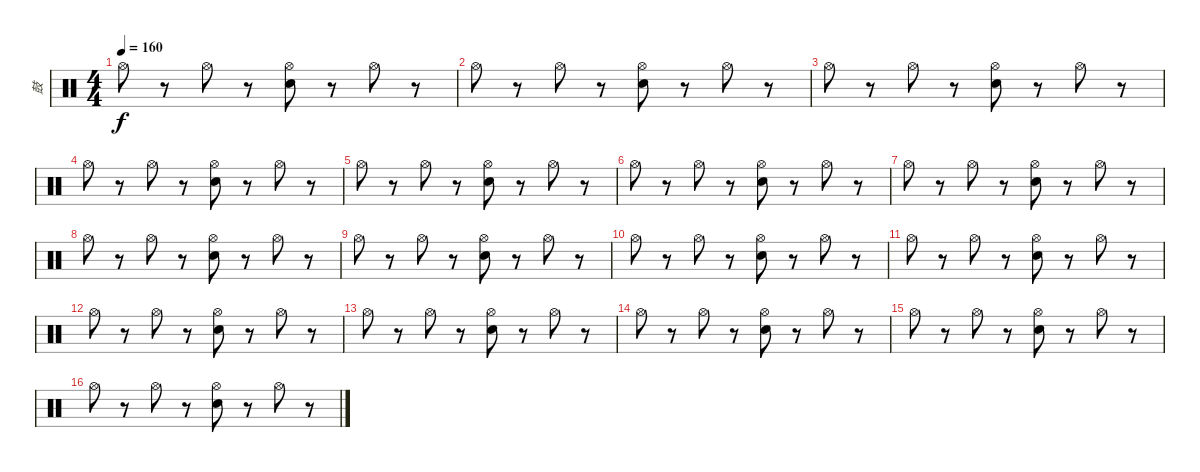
\track ("鼓" "鼓") {instrument percussion}
\staff {score}
\articulation defaults
\ts (4 4)
\tempo 160
\clef neutral
\ks c "Hi-Hat (open)".8{dy f}
r.8 "Hi-Hat (open)".8 r.8 ("Electric Snare (hit)" "Hi-Hat (open)").8 r.8 "Hi-Hat (open)".8 r.8 |
"Hi-Hat (open)".8 r.8 "Hi-Hat (open)".8 r.8 ("Electric Snare (hit)" "Hi-Hat (open)").8 r.8 "Hi-Hat (open)".8 r.8 |
"Hi-Hat (open)".8 r.8 "Hi-Hat (open)".8 r.8 ("Electric Snare (hit)" "Hi-Hat (open)").8 r.8 "Hi-Hat (open)".8 r.8 |
"Hi-Hat (open)".8 r.8 "Hi-Hat (open)".8 r.8 ("Electric Snare (hit)" "Hi-Hat (open)").8 r.8 "Hi-Hat (open)".8 r.8 |
"Hi-Hat (open)".8 r.8 "Hi-Hat (open)".8 r.8 ("Electric Snare (hit)" "Hi-Hat (open)").8 r.8 "Hi-Hat (open)".8 r.8 |
"Hi-Hat (open)".8 r.8 "Hi-Hat (open)".8 r.8 ("Electric Snare (hit)" "Hi-Hat (open)").8 r.8 "Hi-Hat (open)".8 r.8 |
"Hi-Hat (open)".8 r.8 "Hi-Hat (open)".8 r.8 ("Electric Snare (hit)" "Hi-Hat (open)").8 r.8 "Hi-Hat (open)".8 r.8 |
"Hi-Hat (open)".8 r.8 "Hi-Hat (open)".8 r.8 ("Electric Snare (hit)" "Hi-Hat (open)").8 r.8 "Hi-Hat (open)".8 r.8 |
"Hi-Hat (open)".8 r.8 "Hi-Hat (open)".8 r.8 ("Electric Snare (hit)" "Hi-Hat (open)").8 r.8 "Hi-Hat (open)".8 r.8 |
"Hi-Hat (open)".8 r.8 "Hi-Hat (open)".8 r.8 ("Electric Snare (hit)" "Hi-Hat (open)").8 r.8 "Hi-Hat (open)".8 r.8 |
"Hi-Hat (open)".8 r.8 "Hi-Hat (open)".8 r.8 ("Electric Snare (hit)" "Hi-Hat (open)").8 r.8 "Hi-Hat (open)".8 r.8 |
"Hi-Hat (open)".8 r.8 "Hi-Hat (open)".8 r.8 ("Electric Snare (hit)" "Hi-Hat (open)").8 r.8 "Hi-Hat (open)".8 r.8 |
"Hi-Hat (open)".8 r.8 "Hi-Hat (open)".8 r.8 ("Electric Snare (hit)" "Hi-Hat (open)").8 r.8 "Hi-Hat (open)".8 r.8 |
"Hi-Hat (open)".8 r.8 "Hi-Hat (open)".8 r.8 ("Electric Snare (hit)" "Hi-Hat (open)").8 r.8 "Hi-Hat (open)".8 r.8 |
"Hi-Hat (open)".8 r.8 "Hi-Hat (open)".8 r.8 ("Electric Snare (hit)" "Hi-Hat (open)").8 r.8 "Hi-Hat (open)".8 r.8 |
"Hi-Hat (open)".8 r.8 "Hi-Hat (open)".8 r.8 ("Electric Snare (hit)" "Hi-Hat (open)").8 r.8 "Hi-Hat (open)".8 r.8
